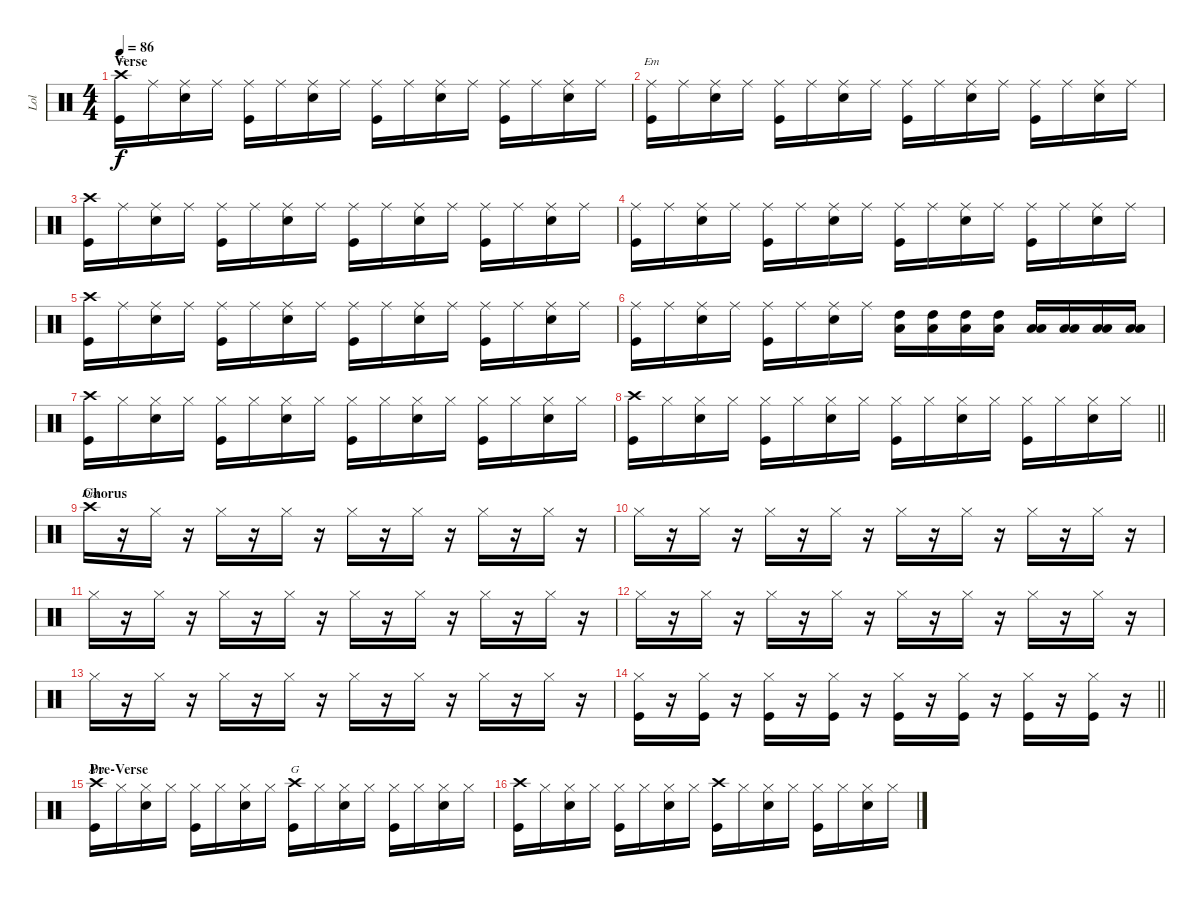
\track ("Lol" "Lol") {instrument percussion}
\staff {score}
\articulation defaults
\chord ("F")
\chord ("Em")
\chord ("Dm")
\chord ("Am")
\chord ("G")
\ts (4 4)
\section ("" "Verse")
\tempo 86
\clef neutral
\ks c
("Crash high (hit)" "Kick (hit)").16{ch "F" dy f} "Ride (middle)".16 ("Ride (middle)" "Snare (hit) 2").16 "Ride (middle)".16 ("Ride (middle)" "Kick (hit)").16 "Ride (middle)".16 ("Ride (middle)" "Snare (hit) 2").16 "Ride (middle)".16 ("Ride (middle)" "Kick (hit)").16 "Ride (middle)".16 ("Ride (middle)" "Snare (hit) 2").16 "Ride (middle)".16 ("Ride (middle)" "Kick (hit)").16 "Ride (middle)".16 ("Ride (middle)" "Snare (hit) 2").16 "Ride (middle)".16 |
("Ride (middle)" "Kick (hit)").16{ch "Em"} "Ride (middle)".16 ("Ride (middle)" "Snare (hit) 2").16 "Ride (middle)".16 ("Ride (middle)" "Kick (hit)").16 "Ride (middle)".16 ("Ride (middle)" "Snare (hit) 2").16 "Ride (middle)".16 ("Ride (middle)" "Kick (hit)").16 "Ride (middle)".16 ("Ride (middle)" "Snare (hit) 2").16 "Ride (middle)".16 ("Ride (middle)" "Kick (hit)").16 "Ride (middle)".16 ("Ride (middle)" "Snare (hit) 2").16 "Ride (middle)".16 |
("Crash high (hit)" "Kick (hit)").16 "Ride (middle)".16 ("Ride (middle)" "Snare (hit) 2").16 "Ride (middle)".16 ("Ride (middle)" "Kick (hit)").16 "Ride (middle)".16 ("Ride (middle)" "Snare (hit) 2").16 "Ride (middle)".16 ("Ride (middle)" "Kick (hit)").16 "Ride (middle)".16 ("Ride (middle)" "Snare (hit) 2").16 "Ride (middle)".16 ("Ride (middle)" "Kick (hit)").16 "Ride (middle)".16 ("Ride (middle)" "Snare (hit) 2").16 "Ride (middle)".16 |
("Ride (middle)" "Kick (hit)").16 "Ride (middle)".16 ("Ride (middle)" "Snare (hit) 2").16 "Ride (middle)".16 ("Ride (middle)" "Kick (hit)").16 "Ride (middle)".16 ("Ride (middle)" "Snare (hit) 2").16 "Ride (middle)".16 ("Ride (middle)" "Kick (hit)").16 "Ride (middle)".16 ("Ride (middle)" "Snare (hit) 2").16 "Ride (middle)".16 ("Ride (middle)" "Kick (hit)").16 "Ride (middle)".16 ("Ride (middle)" "Snare (hit) 2").16 "Ride (middle)".16 |
("Crash high (hit)" "Kick (hit)").16 "Ride (middle)".16 ("Ride (middle)" "Snare (hit) 2").16 "Ride (middle)".16 ("Ride (middle)" "Kick (hit)").16 "Ride (middle)".16 ("Ride (middle)" "Snare (hit) 2").16 "Ride (middle)".16 ("Ride (middle)" "Kick (hit)").16 "Ride (middle)".16 ("Ride (middle)" "Snare (hit) 2").16 "Ride (middle)".16 ("Ride (middle)" "Kick (hit)").16 "Ride (middle)".16 ("Ride (middle)" "Snare (hit) 2").16 "Ride (middle)".16 |
("Ride (middle)" "Kick (hit)").16 "Ride (middle)".16 ("Ride (middle)" "Snare (hit) 2").16 "Ride (middle)".16 ("Ride (middle)" "Kick (hit)").16 "Ride (middle)".16 ("Ride (middle)" "Snare (hit) 2").16 "Ride (middle)".16 ("High Tom (hit)" "Low Floor Tom (hit)").16 ("High Tom (hit)" "Low Floor Tom (hit)").16 ("High Tom (hit)" "Low Floor Tom (hit)").16 ("High Tom (hit)" "Low Floor Tom (hit)").16 ("Low Tom (hit)" "Low Floor Tom (hit)").16 ("Low Tom (hit)" "Low Floor Tom (hit)").16 ("Low Tom (hit)" "Low Floor Tom (hit)").16 ("Low Tom (hit)" "Low Floor Tom (hit)").16 |
("Crash high (hit)" "Kick (hit)").16 "Hi-Hat (closed)".16 ("Hi-Hat (closed)" "Snare (hit) 2").16 "Hi-Hat (closed)".16 ("Hi-Hat (closed)" "Kick (hit)").16 "Hi-Hat (closed)".16 ("Hi-Hat (closed)" "Snare (hit) 2").16 "Hi-Hat (closed)".16 ("Hi-Hat (closed)" "Kick (hit)").16 "Hi-Hat (closed)".16 ("Hi-Hat (closed)" "Snare (hit) 2").16 "Hi-Hat (closed)".16 ("Hi-Hat (closed)" "Kick (hit)").16 "Hi-Hat (closed)".16 ("Hi-Hat (closed)" "Snare (hit) 2").16 "Hi-Hat (closed)".16 |
\barLineRight lightlight
("Crash high (hit)" "Kick (hit)").16 "Hi-Hat (closed)".16 ("Hi-Hat (closed)" "Snare (hit) 2").16 "Hi-Hat (closed)".16 ("Hi-Hat (closed)" "Kick (hit)").16 "Hi-Hat (closed)".16 ("Hi-Hat (closed)" "Snare (hit) 2").16 "Hi-Hat (closed)".16 ("Hi-Hat (closed)" "Kick (hit)").16 "Hi-Hat (closed)".16 ("Hi-Hat (closed)" "Snare (hit) 2").16 "Hi-Hat (closed)".16 ("Hi-Hat (closed)" "Kick (hit)").16 "Hi-Hat (closed)".16 ("Hi-Hat (closed)" "Snare (hit) 2").16 "Hi-Hat (closed)".16 |
\section ("" "Chorus")
"Crash high (hit)".16{ch "Dm"} r.16 "Hi-Hat (closed)".16{volume 10} r.16 "Hi-Hat (closed)".16 r.16 "Hi-Hat (closed)".16 r.16 "Hi-Hat (closed)".16 r.16 "Hi-Hat (closed)".16 r.16 "Hi-Hat (closed)".16 r.16 "Hi-Hat (closed)".16 r.16 |
"Hi-Hat (closed)".16 r.16 "Hi-Hat (closed)".16 r.16 "Hi-Hat (closed)".16 r.16 "Hi-Hat (closed)".16 r.16 "Hi-Hat (closed)".16 r.16 "Hi-Hat (closed)".16 r.16 "Hi-Hat (closed)".16 r.16 "Hi-Hat (closed)".16 r.16 |
"Hi-Hat (closed)".16 r.16 "Hi-Hat (closed)".16 r.16 "Hi-Hat (closed)".16 r.16 "Hi-Hat (closed)".16 r.16 "Hi-Hat (closed)".16 r.16 "Hi-Hat (closed)".16 r.16 "Hi-Hat (closed)".16 r.16 "Hi-Hat (closed)".16 r.16 |
"Hi-Hat (closed)".16 r.16 "Hi-Hat (closed)".16 r.16 "Hi-Hat (closed)".16 r.16 "Hi-Hat (closed)".16 r.16 "Hi-Hat (closed)".16 r.16 "Hi-Hat (closed)".16 r.16 "Hi-Hat (closed)".16 r.16 "Hi-Hat (closed)".16 r.16 |
"Hi-Hat (closed)".16 r.16 "Hi-Hat (closed)".16 r.16 "Hi-Hat (closed)".16 r.16 "Hi-Hat (closed)".16 r.16 "Hi-Hat (closed)".16 r.16 "Hi-Hat (closed)".16 r.16 "Hi-Hat (closed)".16 r.16 "Hi-Hat (closed)".16 r.16 |
\barLineRight lightlight
("Hi-Hat (closed)" "Kick (hit)").16{volume 14} r.16 ("Hi-Hat (closed)" "Kick (hit)").16 r.16 ("Hi-Hat (closed)" "Kick (hit)").16 r.16 ("Hi-Hat (closed)" "Kick (hit)").16 r.16 ("Hi-Hat (closed)" "Kick (hit)").16 r.16 ("Hi-Hat (closed)" "Kick (hit)").16 r.16 ("Hi-Hat (closed)" "Kick (hit)").16 r.16 ("Hi-Hat (closed)" "Kick (hit)").16 r.16 |
\section ("" "Pre-Verse")
("Crash high (hit)" "Kick (hit)").16{ch "Am"} "Hi-Hat (closed)".16 ("Hi-Hat (closed)" "Snare (hit) 2").16 "Hi-Hat (closed)".16 ("Hi-Hat (closed)" "Kick (hit)").16 "Hi-Hat (closed)".16 ("Hi-Hat (closed)" "Snare (hit) 2").16 "Hi-Hat (closed)".16 ("Crash high (hit)" "Kick (hit)").16{ch "G"} "Hi-Hat (closed)".16 ("Hi-Hat (closed)" "Snare (hit) 2").16 "Hi-Hat (closed)".16 ("Hi-Hat (closed)" "Kick (hit)").16 "Hi-Hat (closed)".16 ("Hi-Hat (closed)" "Snare (hit) 2").16 "Hi-Hat (closed)".16 |
("Crash high (hit)" "Kick (hit)").16 "Hi-Hat (closed)".16 ("Hi-Hat (closed)" "Snare (hit) 2").16 "Hi-Hat (closed)".16 ("Hi-Hat (closed)" "Kick (hit)").16 "Hi-Hat (closed)".16 ("Hi-Hat (closed)" "Snare (hit) 2").16 "Hi-Hat (closed)".16 ("Crash high (hit)" "Kick (hit)").16 "Hi-Hat (closed)".16 ("Hi-Hat (closed)" "Snare (hit) 2").16 "Hi-Hat (closed)".16 ("Hi-Hat (closed)" "Kick (hit)").16 "Hi-Hat (closed)".16 ("Hi-Hat (closed)" "Snare (hit) 2").16 "Hi-Hat (closed)".16
